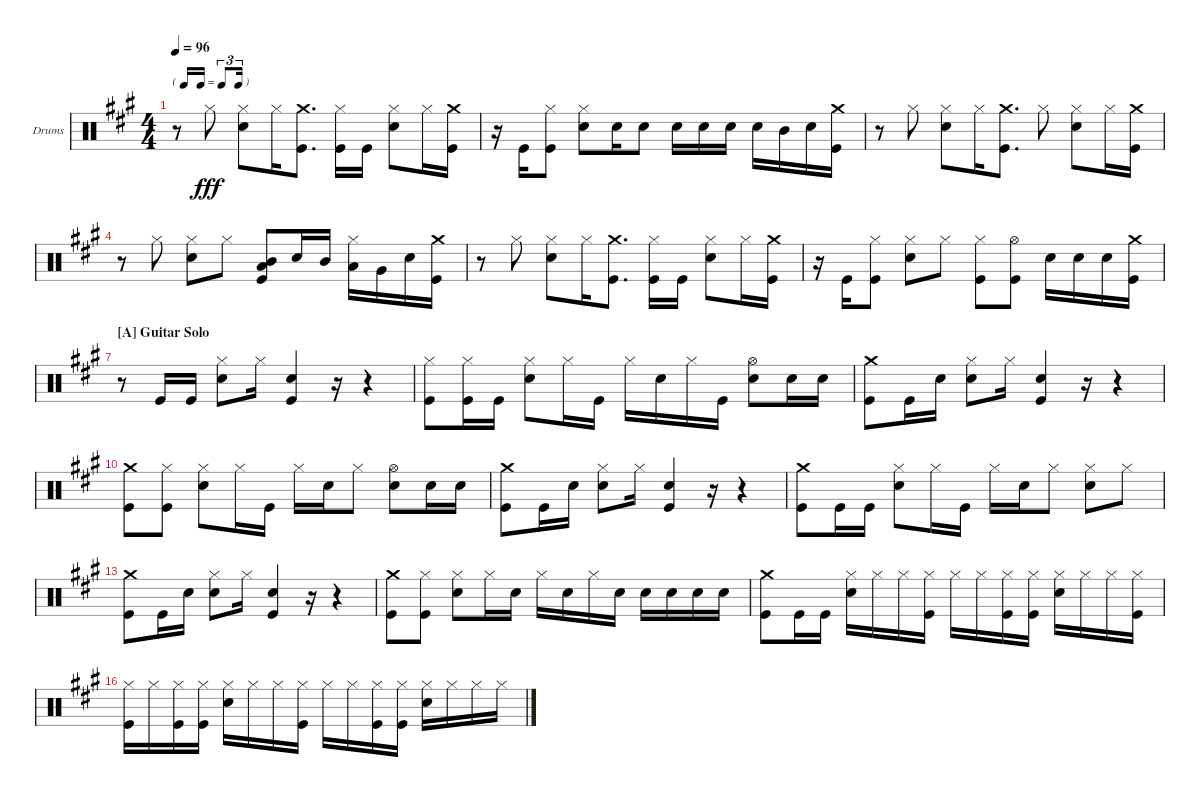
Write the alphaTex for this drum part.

\bracketExtendMode nobrackets
\firstSystemTrackNameOrientation horizontal
\otherSystemsTrackNameOrientation horizontal
\defaultBarNumberDisplay FirstOfSystem
\track ("Drumkit" "Drums") {instrument percussion}
\staff {score}
\articulation defaults
\ts (4 4)
\tf triplet16th
\tempo 96
\clef neutral
\ks a
r.8{dy fff} "Hi-Hat (closed)".8 ("Snare (hit) 2" "Hi-Hat (closed)").8 "Hi-Hat (closed)".16 ("Kick (hit)" "Crash medium (hit)").8{d} ("Kick (hit)" "Hi-Hat (closed)").16 "Kick (hit)".16 ("Snare (hit) 2" "Hi-Hat (closed)").8 "Hi-Hat (closed)".16 ("Kick (hit)" "Crash medium (hit)").16 |
r.16 "Kick (hit)".16 ("Hi-Hat (closed)" "Kick (hit)").8 ("Snare (hit) 2" "Hi-Hat (closed)").8 "Snare (hit) 2".16 "Snare (hit) 2".8 "Snare (hit) 2".16 "Snare (hit) 2".16 "Snare (hit) 2".16 "Snare (hit) 2".16 "Mid Tom (hit)".16 "Snare (hit) 2".16 ("Crash medium (hit)" "Kick (hit)").16 |
r.8 "Hi-Hat (closed)".8 ("Snare (hit) 2" "Hi-Hat (closed)").8 "Hi-Hat (closed)".16 ("Crash medium (hit)" "Kick (hit)").8{d} "Hi-Hat (closed)".8 ("Snare (hit) 2" "Hi-Hat (closed)").8 "Hi-Hat (closed)".16 ("Kick (hit)" "Crash medium (hit)").16 |
r.8 "Hi-Hat (closed)".8 ("Snare (hit) 2" "Hi-Hat (closed)").8 "Hi-Hat (closed)".8 ("Kick (hit)" "Low Tom (hit)" "Mid Tom (hit)").8 "Snare (hit) 2".16 "Mid Tom (hit)".16 ("Low Tom (hit)" "Hi-Hat (closed)").16 "Very Low Tom (hit)".16 "Snare (hit) 2".16 ("Crash medium (hit)" "Kick (hit)").16 |
r.8 "Hi-Hat (closed)".8 ("Snare (hit) 2" "Hi-Hat (closed)").8 "Hi-Hat (closed)".16 ("Kick (hit)" "Crash medium (hit)").8{d} ("Kick (hit)" "Hi-Hat (closed)").16 "Kick (hit)".16 ("Snare (hit) 2" "Hi-Hat (closed)").8 "Hi-Hat (closed)".16 ("Kick (hit)" "Crash medium (hit)").16 |
r.16 "Kick (hit)".16 ("Hi-Hat (closed)" "Kick (hit)").8 ("Snare (hit) 2" "Hi-Hat (closed)").8 "Hi-Hat (closed)".8 ("Kick (hit)" "Hi-Hat (closed)").8 ("Kick (hit)" "Hi-Hat (open)").8 "Snare (hit) 2".16 "Snare (hit) 2".16 "Snare (hit) 2".16 ("Kick (hit)" "Crash medium (hit)").16 |
\section ("A" "Guitar Solo")
r.8 "Kick (hit)".16 "Kick (hit)".16 ("Snare (hit) 2" "Hi-Hat (closed)").8 "Hi-Hat (closed)".16 ("Kick (hit)" "Snare (hit) 2").4 r.16 r.4 |
("Hi-Hat (closed)" "Kick (hit)").8 ("Kick (hit)" "Hi-Hat (closed)").16 "Kick (hit)".16 ("Hi-Hat (closed)" "Snare (hit) 2").8 "Hi-Hat (closed)".16 "Kick (hit)".16 "Hi-Hat (closed)".16 "Snare (hit) 2".16 "Hi-Hat (closed)".16 "Kick (hit)".16 ("Hi-Hat (open)" "Snare (hit) 2").8 "Snare (hit) 2".16 "Snare (hit) 2".16 |
("Crash medium (hit)" "Kick (hit)").8 "Kick (hit)".16 "Snare (hit) 2".16 ("Snare (hit) 2" "Hi-Hat (closed)").8 "Hi-Hat (closed)".16 ("Kick (hit)" "Snare (hit) 2").4 r.16 r.4 |
("Crash medium (hit)" "Kick (hit)").8 ("Kick (hit)" "Hi-Hat (closed)").8 ("Hi-Hat (closed)" "Snare (hit) 2").8 "Hi-Hat (closed)".16 "Kick (hit)".16 "Hi-Hat (closed)".16 "Snare (hit) 2".16 "Hi-Hat (closed)".8 ("Snare (hit) 2" "Hi-Hat (open)").8 "Snare (hit) 2".16 "Snare (hit) 2".16 |
("Crash medium (hit)" "Kick (hit)").8 "Kick (hit)".16 "Snare (hit) 2".16 ("Snare (hit) 2" "Hi-Hat (closed)").8 "Hi-Hat (closed)".16 ("Kick (hit)" "Snare (hit) 2").4 r.16 r.4 |
("Crash medium (hit)" "Kick (hit)").8 "Kick (hit)".16 "Kick (hit)".16 ("Hi-Hat (closed)" "Snare (hit) 2").8 "Hi-Hat (closed)".16 "Kick (hit)".16 "Hi-Hat (closed)".16 "Snare (hit) 2".16 "Hi-Hat (closed)".8 ("Snare (hit) 2" "Hi-Hat (closed)").8 "Hi-Hat (closed)".8 |
("Crash medium (hit)" "Kick (hit)").8 "Kick (hit)".16 "Snare (hit) 2".16 ("Snare (hit) 2" "Hi-Hat (closed)").8 "Hi-Hat (closed)".16 ("Kick (hit)" "Snare (hit) 2").4 r.16 r.4 |
("Crash medium (hit)" "Kick (hit)").8 ("Kick (hit)" "Hi-Hat (closed)").8 ("Hi-Hat (closed)" "Snare (hit) 2").8 "Hi-Hat (closed)".16 "Snare (hit) 2".16 "Hi-Hat (closed)".16 "Snare (hit) 2".16 "Hi-Hat (closed)".16 "Snare (hit) 2".16 "Snare (hit) 2".16 "Snare (hit) 2".16 "Snare (hit) 2".16 "Snare (hit) 2".16 |
("Crash medium (hit)" "Kick (hit)").8 "Kick (hit)".16 "Kick (hit)".16 ("Hi-Hat (closed)" "Snare (hit) 2").16 "Hi-Hat (closed)".16 "Hi-Hat (closed)".16 ("Hi-Hat (closed)" "Kick (hit)").16 "Hi-Hat (closed)".16 "Hi-Hat (closed)".16 ("Kick (hit)" "Hi-Hat (closed)").16 ("Kick (hit)" "Hi-Hat (closed)").16 ("Snare (hit) 2" "Hi-Hat (closed)").16 "Hi-Hat (closed)".16 "Hi-Hat (closed)".16 ("Kick (hit)" "Hi-Hat (closed)").16 |
("Hi-Hat (closed)" "Kick (hit)").16 "Hi-Hat (closed)".16 ("Hi-Hat (closed)" "Kick (hit)").16 ("Hi-Hat (closed)" "Kick (hit)").16 ("Hi-Hat (closed)" "Snare (hit) 2").16 "Hi-Hat (closed)".16 "Hi-Hat (closed)".16 ("Hi-Hat (closed)" "Kick (hit)").16 "Hi-Hat (closed)".16 "Hi-Hat (closed)".16 ("Kick (hit)" "Hi-Hat (closed)").16 ("Kick (hit)" "Hi-Hat (closed)").16 ("Snare (hit) 2" "Hi-Hat (closed)").16 "Hi-Hat (closed)".16 "Hi-Hat (closed)".16 "Hi-Hat (closed)".16
